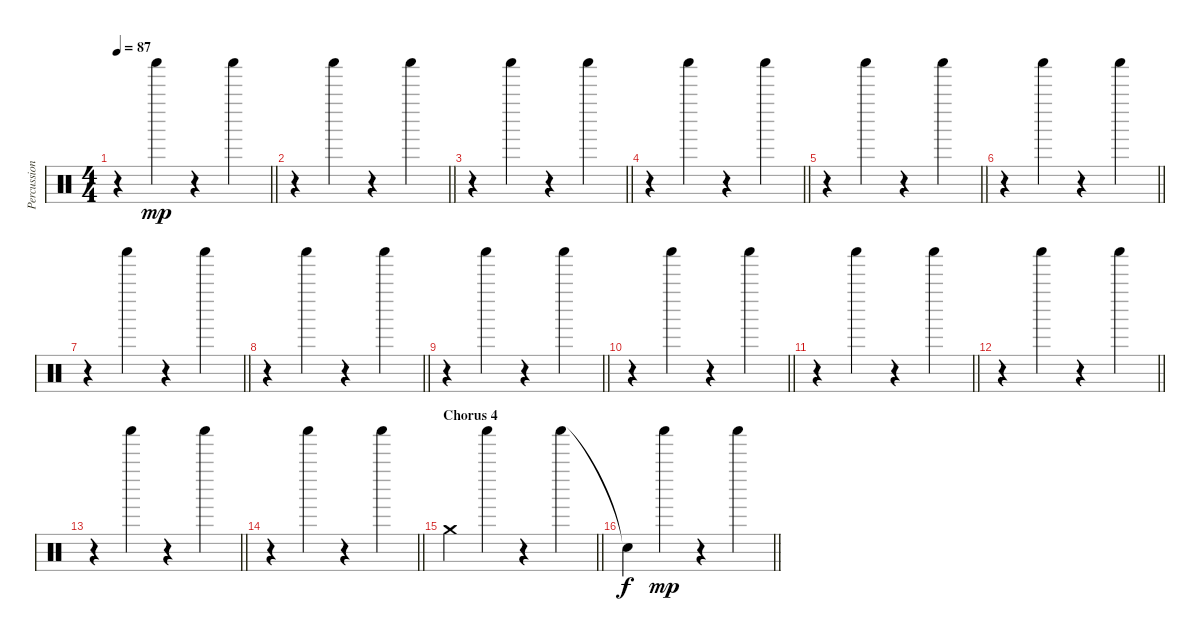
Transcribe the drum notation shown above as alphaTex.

\track ("Percussion" "Percussion") {instrument percussion}
\staff {score}
\articulation defaults
\ts (4 4)
\tempo 87
\clef neutral
\barLineRight lightlight
\ks c
r.4{dy mp} "Shaker (hit)".4 r.4 "Shaker (hit)".4 |
\barLineRight lightlight
r.4 "Shaker (hit)".4 r.4 "Shaker (hit)".4 |
\barLineRight lightlight
r.4 "Shaker (hit)".4 r.4 "Shaker (hit)".4 |
\barLineRight lightlight
r.4 "Shaker (hit)".4 r.4 "Shaker (hit)".4 |
\barLineRight lightlight
r.4 "Shaker (hit)".4 r.4 "Shaker (hit)".4 |
\barLineRight lightlight
r.4 "Shaker (hit)".4 r.4 "Shaker (hit)".4 |
\barLineRight lightlight
r.4 "Shaker (hit)".4 r.4 "Shaker (hit)".4 |
\barLineRight lightlight
r.4 "Shaker (hit)".4 r.4 "Shaker (hit)".4 |
\barLineRight lightlight
r.4 "Shaker (hit)".4 r.4 "Shaker (hit)".4 |
\barLineRight lightlight
r.4 "Shaker (hit)".4 r.4 "Shaker (hit)".4 |
\barLineRight lightlight
r.4 "Shaker (hit)".4 r.4 "Shaker (hit)".4 |
\barLineRight lightlight
r.4 "Shaker (hit)".4 r.4 "Shaker (hit)".4 |
\barLineRight lightlight
r.4 "Shaker (hit)".4 r.4 "Shaker (hit)".4 |
\barLineRight lightlight
r.4 "Shaker (hit)".4 r.4 "Shaker (hit)".4 |
\section ("" "Chorus 4")
\barLineRight lightlight "Crash medium (hit)".4 "Shaker (hit)".4
r.4 "Shaker (hit)".4 |
\barLineRight lightlight "Snare (hit)"{t}.4{dy f} "Shaker (hit)".4{dy mp}
r.4 "Shaker (hit)".4
